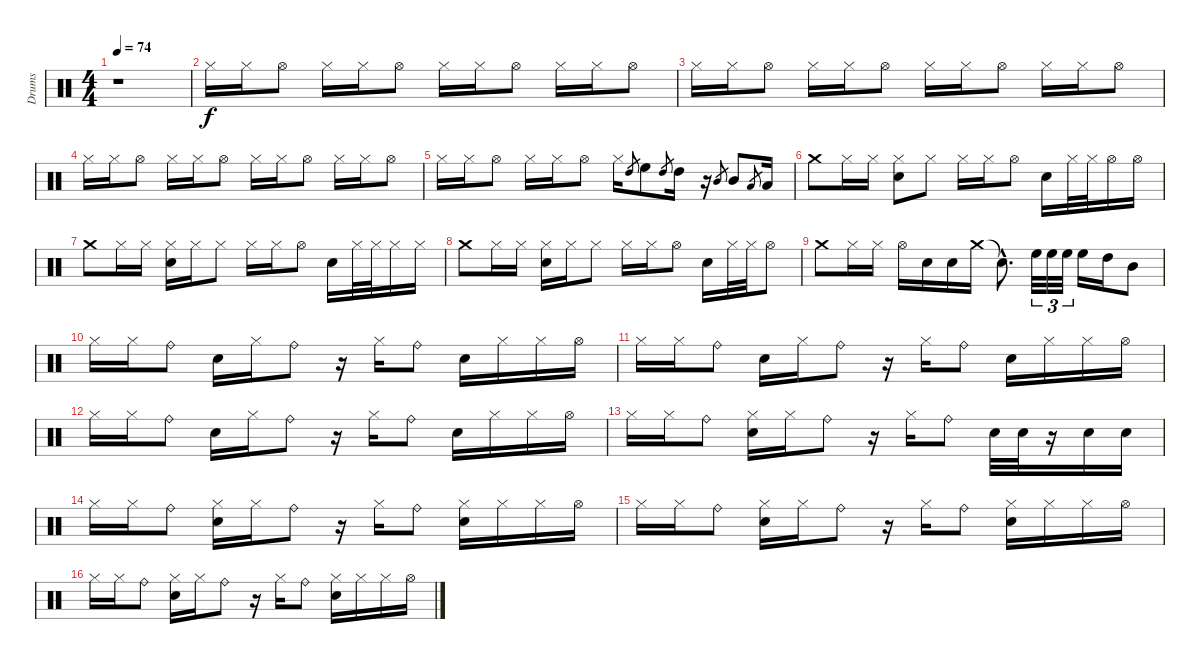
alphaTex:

\track ("Drums" "Drums") {instrument percussion}
\staff {score}
\articulation defaults
\ts (4 4)
\tempo 74
\clef neutral
\ks c
r.1{dy f} |
"Hi-Hat (closed)".16 "Hi-Hat (closed)".16 "Hi-Hat (open)".8 "Hi-Hat (closed)".16 "Hi-Hat (closed)".16 "Hi-Hat (open)".8 "Hi-Hat (closed)".16 "Hi-Hat (closed)".16 "Hi-Hat (open)".8 "Hi-Hat (closed)".16 "Hi-Hat (closed)".16 "Hi-Hat (open)".8 |
"Hi-Hat (closed)".16 "Hi-Hat (closed)".16 "Hi-Hat (open)".8 "Hi-Hat (closed)".16 "Hi-Hat (closed)".16 "Hi-Hat (open)".8 "Hi-Hat (closed)".16 "Hi-Hat (closed)".16 "Hi-Hat (open)".8 "Hi-Hat (closed)".16 "Hi-Hat (closed)".16 "Hi-Hat (open)".8 |
"Hi-Hat (closed)".16 "Hi-Hat (closed)".16 "Hi-Hat (open)".8 "Hi-Hat (closed)".16 "Hi-Hat (closed)".16 "Hi-Hat (open)".8 "Hi-Hat (closed)".16 "Hi-Hat (closed)".16 "Hi-Hat (open)".8 "Hi-Hat (closed)".16 "Hi-Hat (closed)".16 "Hi-Hat (open)".8 |
"Hi-Hat (closed)".16 "Hi-Hat (closed)".16 "Hi-Hat (open)".8 "Hi-Hat (closed)".16 "Hi-Hat (closed)".16 "Hi-Hat (open)".8 "Hi-Hat (closed)".16 "High Tom (hit)".8{gr} "High Floor Tom (hit)".8 "High Tom (hit)".8{gr} "High Tom (hit)".16 r.16 "Mid Tom (hit)".8{gr} "Mid Tom (hit)".8 "Low Tom (hit)".8{gr} "Low Tom (hit)".16 |
"Crash medium (hit)".8 "Hi-Hat (closed)".16 "Hi-Hat (closed)".16 ("Hi-Hat (closed)" "Electric Snare (hit)").8 "Hi-Hat (closed)".8 "Hi-Hat (closed)".16 "Hi-Hat (closed)".16 "Hi-Hat (open)".8 "Electric Snare (hit)".16 "Hi-Hat (closed)".32 "Hi-Hat (closed)".32 "Hi-Hat (open)".16 "Hi-Hat (open)".16 |
"Crash medium (hit)".8 "Hi-Hat (closed)".16 "Hi-Hat (closed)".16 ("Hi-Hat (closed)" "Electric Snare (hit)").16 "Hi-Hat (closed)".16 "Hi-Hat (closed)".8 "Hi-Hat (closed)".16 "Hi-Hat (closed)".16 "Hi-Hat (open)".8 "Electric Snare (hit)".16 "Hi-Hat (closed)".32 "Hi-Hat (closed)".32 "Hi-Hat (closed)".16 "Hi-Hat (closed)".16 |
"Crash medium (hit)".8 "Hi-Hat (closed)".16 "Hi-Hat (closed)".16 ("Hi-Hat (closed)" "Electric Snare (hit)").16 "Hi-Hat (closed)".16 "Hi-Hat (closed)".8 "Hi-Hat (closed)".16 "Hi-Hat (closed)".16 "Hi-Hat (open)".8 "Electric Snare (hit)".16 "Hi-Hat (closed)".32 "Hi-Hat (closed)".32 "Hi-Hat (open)".8 |
"Crash medium (hit)".8 "Hi-Hat (closed)".16 "Hi-Hat (closed)".16 "Hi-Hat (open)".16 "Electric Snare (hit)".16 "Electric Snare (hit)".16 "Crash medium (hit)".16 "Snare (hit)"{hac t}.8{d} "High Floor Tom (hit)".32{tu (3 2)} "High Floor Tom (hit)".32{tu (3 2)} "High Floor Tom (hit)".32{tu (3 2)} "High Floor Tom (hit)".16 "High Tom (hit)".16 "Mid Tom (hit)".8 |
"Hi-Hat (closed)".16 "Hi-Hat (closed)".16 "Ride (bell)".8 "Electric Snare (hit)".16 "Hi-Hat (closed)".16 "Ride (bell)".8 r.16 "Hi-Hat (closed)".16 "Ride (bell)".8 "Electric Snare (hit)".16 "Hi-Hat (closed)".16 "Hi-Hat (closed)".16 "Hi-Hat (open)".16 |
"Hi-Hat (closed)".16 "Hi-Hat (closed)".16 "Ride (bell)".8 "Electric Snare (hit)".16 "Hi-Hat (closed)".16 "Ride (bell)".8 r.16 "Hi-Hat (closed)".16 "Ride (bell)".8 "Electric Snare (hit)".16 "Hi-Hat (closed)".16 "Hi-Hat (closed)".16 "Hi-Hat (open)".16 |
"Hi-Hat (closed)".16 "Hi-Hat (closed)".16 "Ride (bell)".8 "Electric Snare (hit)".16 "Hi-Hat (closed)".16 "Ride (bell)".8 r.16 "Hi-Hat (closed)".16 "Ride (bell)".8 "Electric Snare (hit)".16 "Hi-Hat (closed)".16 "Hi-Hat (closed)".16 "Hi-Hat (open)".16 |
"Hi-Hat (closed)".16 "Hi-Hat (closed)".16 "Ride (bell)".8 ("Hi-Hat (closed)" "Electric Snare (hit)").16 "Hi-Hat (closed)".16 "Ride (bell)".8 r.16 "Hi-Hat (closed)".16 "Ride (bell)".8 "Electric Snare (hit)".32 "Electric Snare (hit)".32 r.16 "Electric Snare (hit)".16 "Electric Snare (hit)".16 |
"Hi-Hat (closed)".16 "Hi-Hat (closed)".16 "Ride (bell)".8 ("Hi-Hat (closed)" "Electric Snare (hit)").16 "Hi-Hat (closed)".16 "Ride (bell)".8 r.16 "Hi-Hat (closed)".16 "Ride (bell)".8 ("Hi-Hat (closed)" "Electric Snare (hit)").16 "Hi-Hat (closed)".16 "Hi-Hat (closed)".16 "Hi-Hat (open)".16 |
"Hi-Hat (closed)".16 "Hi-Hat (closed)".16 "Ride (bell)".8 ("Hi-Hat (closed)" "Electric Snare (hit)").16 "Hi-Hat (closed)".16 "Ride (bell)".8 r.16 "Hi-Hat (closed)".16 "Ride (bell)".8 ("Hi-Hat (closed)" "Electric Snare (hit)").16 "Hi-Hat (closed)".16 "Hi-Hat (closed)".16 "Hi-Hat (open)".16 |
"Hi-Hat (closed)".16 "Hi-Hat (closed)".16 "Ride (bell)".8 ("Hi-Hat (closed)" "Electric Snare (hit)").16 "Hi-Hat (closed)".16 "Ride (bell)".8 r.16 "Hi-Hat (closed)".16 "Ride (bell)".8 ("Hi-Hat (closed)" "Electric Snare (hit)").16 "Hi-Hat (closed)".16 "Hi-Hat (closed)".16 "Hi-Hat (open)".16
